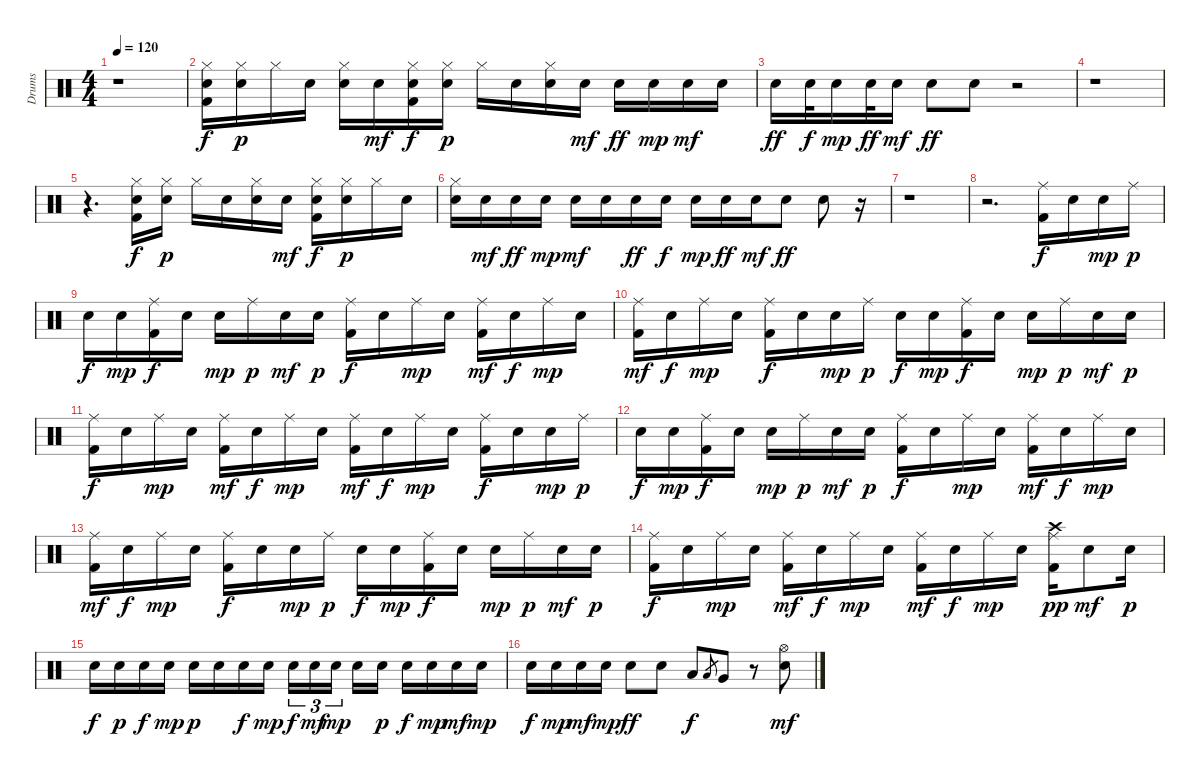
\track ("Drums" "Drums") {instrument percussion}
\staff {score}
\articulation defaults
\ts (4 4)
\tempo 120
\clef neutral
\ks c
r.1{dy f} |
("Kick (hit) 2" "Electric Snare (hit)" "Hi-Hat (closed)").16 ("Electric Snare (hit)" "Hi-Hat (closed)").16{dy p} "Hi-Hat (closed)".16 "Electric Snare (hit)".16 ("Electric Snare (hit)" "Hi-Hat (closed)").16 "Electric Snare (hit)".16{dy mf} ("Kick (hit) 2" "Electric Snare (hit)" "Hi-Hat (closed)").16{dy f} ("Electric Snare (hit)" "Hi-Hat (closed)").16{dy p} "Hi-Hat (closed)".16 "Electric Snare (hit)".16 ("Electric Snare (hit)" "Hi-Hat (closed)").16 "Electric Snare (hit)".16{dy mf} "Electric Snare (hit)".16{dy ff} "Electric Snare (hit)".16{dy mp} "Electric Snare (hit)".16{dy mf} "Electric Snare (hit)".16 |
"Electric Snare (hit)".16{dy ff} "Electric Snare (hit)".32{dy f} "Electric Snare (hit)".16{dy mp} "Electric Snare (hit)".32{dy ff} "Electric Snare (hit)".16{dy mf} "Electric Snare (hit)".8{dy ff} "Electric Snare (hit)".8 r.2 |
r.1 |
r.4{d} ("Kick (hit) 2" "Electric Snare (hit)" "Hi-Hat (closed)").16{dy f} ("Electric Snare (hit)" "Hi-Hat (closed)").16{dy p} "Hi-Hat (closed)".16 "Electric Snare (hit)".16 ("Electric Snare (hit)" "Hi-Hat (closed)").16 "Electric Snare (hit)".16{dy mf} ("Kick (hit) 2" "Electric Snare (hit)" "Hi-Hat (closed)").16{dy f} ("Electric Snare (hit)" "Hi-Hat (closed)").16{dy p} "Hi-Hat (closed)".16 "Electric Snare (hit)".16 |
("Electric Snare (hit)" "Hi-Hat (closed)").16 "Electric Snare (hit)".16{dy mf} "Electric Snare (hit)".16{dy ff} "Electric Snare (hit)".16{dy mp} "Electric Snare (hit)".16{dy mf} "Electric Snare (hit)".16 "Electric Snare (hit)".16{dy ff} "Electric Snare (hit)".16{dy f} "Electric Snare (hit)".16{dy mp} "Electric Snare (hit)".16{dy ff} "Electric Snare (hit)".16{dy mf} "Electric Snare (hit)".8{dy ff} "Electric Snare (hit)".8 r.16 |
r.1 |
r.2{d} ("Kick (hit) 2" "Ride (middle)").16{dy f} "Electric Snare (hit)".16 "Electric Snare (hit)".16{dy mp} "Ride (middle)".16{dy p} |
"Electric Snare (hit)".16{dy f} "Electric Snare (hit)".16{dy mp} ("Kick (hit) 2" "Ride (middle)").16{dy f} "Electric Snare (hit)".16 "Electric Snare (hit)".16{dy mp} "Ride (middle)".16{dy p} "Electric Snare (hit)".16{dy mf} "Electric Snare (hit)".16{dy p} ("Kick (hit) 2" "Ride (middle)").16{dy f} "Electric Snare (hit)".16 "Ride (middle)".16{dy mp} "Electric Snare (hit)".16 ("Kick (hit) 2" "Ride (middle)").16{dy mf} "Electric Snare (hit)".16{dy f} "Ride (middle)".16{dy mp} "Electric Snare (hit)".16 |
("Kick (hit) 2" "Ride (middle)").16{dy mf} "Electric Snare (hit)".16{dy f} "Ride (middle)".16{dy mp} "Electric Snare (hit)".16 ("Kick (hit) 2" "Ride (middle)").16{dy f} "Electric Snare (hit)".16 "Electric Snare (hit)".16{dy mp} "Ride (middle)".16{dy p} "Electric Snare (hit)".16{dy f} "Electric Snare (hit)".16{dy mp} ("Kick (hit) 2" "Ride (middle)").16{dy f} "Electric Snare (hit)".16 "Electric Snare (hit)".16{dy mp} "Ride (middle)".16{dy p} "Electric Snare (hit)".16{dy mf} "Electric Snare (hit)".16{dy p} |
("Kick (hit) 2" "Ride (middle)").16{dy f} "Electric Snare (hit)".16 "Ride (middle)".16{dy mp} "Electric Snare (hit)".16 ("Kick (hit) 2" "Ride (middle)").16{dy mf} "Electric Snare (hit)".16{dy f} "Ride (middle)".16{dy mp} "Electric Snare (hit)".16 ("Kick (hit) 2" "Ride (middle)").16{dy mf} "Electric Snare (hit)".16{dy f} "Ride (middle)".16{dy mp} "Electric Snare (hit)".16 ("Kick (hit) 2" "Ride (middle)").16{dy f} "Electric Snare (hit)".16 "Electric Snare (hit)".16{dy mp} "Ride (middle)".16{dy p} |
"Electric Snare (hit)".16{dy f} "Electric Snare (hit)".16{dy mp} ("Kick (hit) 2" "Ride (middle)").16{dy f} "Electric Snare (hit)".16 "Electric Snare (hit)".16{dy mp} "Ride (middle)".16{dy p} "Electric Snare (hit)".16{dy mf} "Electric Snare (hit)".16{dy p} ("Kick (hit) 2" "Ride (middle)").16{dy f} "Electric Snare (hit)".16 "Ride (middle)".16{dy mp} "Electric Snare (hit)".16 ("Kick (hit) 2" "Ride (middle)").16{dy mf} "Electric Snare (hit)".16{dy f} "Ride (middle)".16{dy mp} "Electric Snare (hit)".16 |
("Kick (hit) 2" "Ride (middle)").16{dy mf} "Electric Snare (hit)".16{dy f} "Ride (middle)".16{dy mp} "Electric Snare (hit)".16 ("Kick (hit) 2" "Ride (middle)").16{dy f} "Electric Snare (hit)".16 "Electric Snare (hit)".16{dy mp} "Ride (middle)".16{dy p} "Electric Snare (hit)".16{dy f} "Electric Snare (hit)".16{dy mp} ("Kick (hit) 2" "Ride (middle)").16{dy f} "Electric Snare (hit)".16 "Electric Snare (hit)".16{dy mp} "Ride (middle)".16{dy p} "Electric Snare (hit)".16{dy mf} "Electric Snare (hit)".16{dy p} |
("Kick (hit) 2" "Ride (middle)").16{dy f} "Electric Snare (hit)".16 "Ride (middle)".16{dy mp} "Electric Snare (hit)".16 ("Kick (hit) 2" "Ride (middle)").16{dy mf} "Electric Snare (hit)".16{dy f} "Ride (middle)".16{dy mp} "Electric Snare (hit)".16 ("Kick (hit) 2" "Ride (middle)").16{dy mf} "Electric Snare (hit)".16{dy f} "Ride (middle)".16{dy mp} "Electric Snare (hit)".16 ("Kick (hit) 2" "Crash high (hit)" "Ride (middle)").16{dy pp} "Electric Snare (hit)".8{dy mf} "Electric Snare (hit)".16{dy p} |
"Electric Snare (hit)".16{dy f} "Electric Snare (hit)".16{dy p} "Electric Snare (hit)".16{dy f} "Electric Snare (hit)".16{dy mp} "Electric Snare (hit)".16{dy p} "Electric Snare (hit)".16 "Electric Snare (hit)".16{dy f} "Electric Snare (hit)".16{dy mp} "Electric Snare (hit)".16{tu (3 2) dy f} "Electric Snare (hit)".16{tu (3 2) dy mf} "Electric Snare (hit)".16{tu (3 2) dy mp} "Electric Snare (hit)".16 "Electric Snare (hit)".16{dy p} "Electric Snare (hit)".16{dy f} "Electric Snare (hit)".16{dy mp} "Electric Snare (hit)".16{dy mf} "Electric Snare (hit)".16{dy mp} |
"Electric Snare (hit)".16{dy f} "Electric Snare (hit)".16{dy mp} "Electric Snare (hit)".16{dy mf} "Electric Snare (hit)".16{dy mp} "Electric Snare (hit)".8{dy ff} "Electric Snare (hit)".8 "Low Tom (hit)".8{dy f} "Low Tom (hit)".8{gr} "Very Low Tom (hit)".8 r.8 ("Electric Snare (hit)" "Hi-Hat (open)").8{dy mf}
